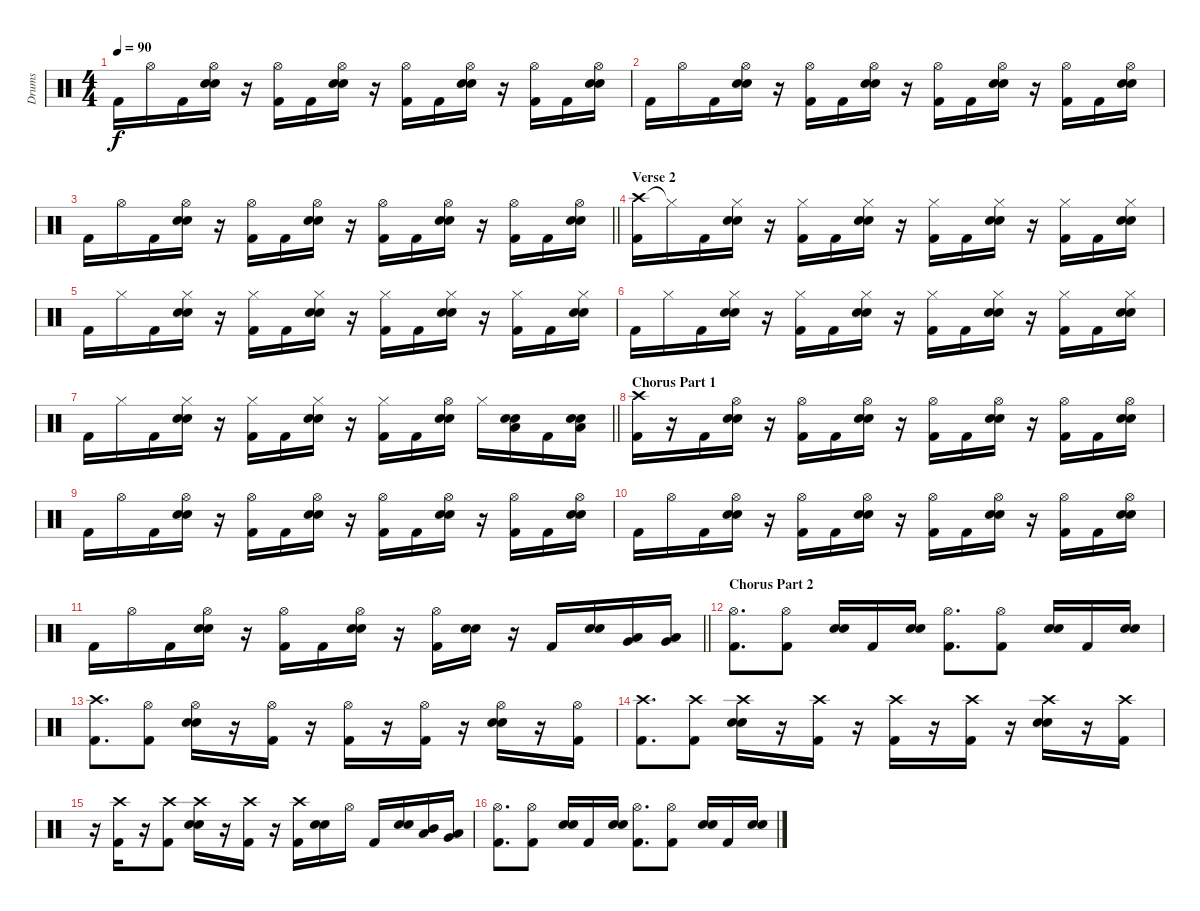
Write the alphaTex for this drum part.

\track ("Drums" "Drums") {instrument percussion}
\staff {score}
\articulation defaults
\ts (4 4)
\tempo 90
\clef neutral
\ks c "Kick (hit) 2".16{dy f} "Hi-Hat (open)".16 "Kick (hit) 2".16
("Hi-Hat (open)" "Snare (hit) 2" "Snare (hit) 2").16 r.16 ("Hi-Hat (open)" "Kick (hit) 2").16 "Kick (hit) 2".16 ("Hi-Hat (open)" "Snare (hit) 2" "Snare (hit) 2").16 r.16 ("Hi-Hat (open)" "Kick (hit) 2").16 "Kick (hit) 2".16 ("Hi-Hat (open)" "Snare (hit) 2" "Snare (hit) 2").16 r.16 ("Hi-Hat (open)" "Kick (hit) 2").16 "Kick (hit) 2".16 ("Hi-Hat (open)" "Snare (hit) 2" "Snare (hit) 2").16 |
"Kick (hit) 2".16 "Hi-Hat (open)".16 "Kick (hit) 2".16 ("Hi-Hat (open)" "Snare (hit) 2" "Snare (hit) 2").16 r.16 ("Hi-Hat (open)" "Kick (hit) 2").16 "Kick (hit) 2".16 ("Hi-Hat (open)" "Snare (hit) 2" "Snare (hit) 2").16 r.16 ("Hi-Hat (open)" "Kick (hit) 2").16 "Kick (hit) 2".16 ("Hi-Hat (open)" "Snare (hit) 2" "Snare (hit) 2").16 r.16 ("Hi-Hat (open)" "Kick (hit) 2").16 "Kick (hit) 2".16 ("Hi-Hat (open)" "Snare (hit) 2" "Snare (hit) 2").16 |
\barLineRight lightlight "Kick (hit) 2".16 "Hi-Hat (open)".16 "Kick (hit) 2".16
("Hi-Hat (open)" "Snare (hit) 2" "Snare (hit) 2").16 r.16 ("Hi-Hat (open)" "Kick (hit) 2").16 "Kick (hit) 2".16 ("Hi-Hat (open)" "Snare (hit) 2" "Snare (hit) 2").16 r.16 ("Hi-Hat (open)" "Kick (hit) 2").16 "Kick (hit) 2".16 ("Hi-Hat (open)" "Snare (hit) 2" "Snare (hit) 2").16 r.16 ("Hi-Hat (open)" "Kick (hit) 2").16 "Kick (hit) 2".16 ("Hi-Hat (open)" "Snare (hit) 2" "Snare (hit) 2").16 |
\section ("" "Verse 2")
("Crash high (hit)" "Kick (hit) 2").16 "Hi-Hat (closed)"{t}.16 "Kick (hit) 2".16 ("Hi-Hat (closed)" "Snare (hit) 2" "Snare (hit) 2").16 r.16 ("Hi-Hat (closed)" "Kick (hit) 2").16 "Kick (hit) 2".16 ("Hi-Hat (closed)" "Snare (hit) 2" "Snare (hit) 2").16 r.16 ("Hi-Hat (closed)" "Kick (hit) 2").16 "Kick (hit) 2".16 ("Hi-Hat (closed)" "Snare (hit) 2" "Snare (hit) 2").16 r.16 ("Hi-Hat (closed)" "Kick (hit) 2").16 "Kick (hit) 2".16 ("Hi-Hat (closed)" "Snare (hit) 2" "Snare (hit) 2").16 |
"Kick (hit) 2".16 "Hi-Hat (closed)".16 "Kick (hit) 2".16 ("Hi-Hat (closed)" "Snare (hit) 2" "Snare (hit) 2").16 r.16 ("Hi-Hat (closed)" "Kick (hit) 2").16 "Kick (hit) 2".16 ("Hi-Hat (closed)" "Snare (hit) 2" "Snare (hit) 2").16 r.16 ("Hi-Hat (closed)" "Kick (hit) 2").16 "Kick (hit) 2".16 ("Hi-Hat (closed)" "Snare (hit) 2" "Snare (hit) 2").16 r.16 ("Hi-Hat (closed)" "Kick (hit) 2").16 "Kick (hit) 2".16 ("Hi-Hat (closed)" "Snare (hit) 2" "Snare (hit) 2").16 |
"Kick (hit) 2".16 "Hi-Hat (closed)".16 "Kick (hit) 2".16 ("Hi-Hat (closed)" "Snare (hit) 2" "Snare (hit) 2").16 r.16 ("Hi-Hat (closed)" "Kick (hit) 2").16 "Kick (hit) 2".16 ("Hi-Hat (closed)" "Snare (hit) 2" "Snare (hit) 2").16 r.16 ("Hi-Hat (closed)" "Kick (hit) 2").16 "Kick (hit) 2".16 ("Hi-Hat (closed)" "Snare (hit) 2" "Snare (hit) 2").16 r.16 ("Hi-Hat (closed)" "Kick (hit) 2").16 "Kick (hit) 2".16 ("Hi-Hat (closed)" "Snare (hit) 2" "Snare (hit) 2").16 |
\barLineRight lightlight "Kick (hit) 2".16 "Hi-Hat (closed)".16 "Kick (hit) 2".16
("Hi-Hat (closed)" "Snare (hit) 2" "Snare (hit) 2").16 r.16 ("Hi-Hat (closed)" "Kick (hit) 2").16 "Kick (hit) 2".16 ("Hi-Hat (closed)" "Snare (hit) 2" "Snare (hit) 2").16 r.16 ("Hi-Hat (closed)" "Kick (hit) 2").16 "Kick (hit) 2".16 ("Hi-Hat (open)" "Snare (hit) 2" "Snare (hit) 2").16 "Hi-Hat (closed)".16 ("Low Floor Tom (hit)" "Snare (hit) 2" "Snare (hit) 2").16 "Kick (hit) 2".16 ("Low Floor Tom (hit)" "Snare (hit) 2" "Snare (hit) 2").16 |
\section ("" "Chorus Part 1")
("Crash high (hit)" "Kick (hit) 2").16 r.16 "Kick (hit) 2".16 ("Hi-Hat (open)" "Snare (hit) 2" "Snare (hit) 2").16 r.16 ("Hi-Hat (open)" "Kick (hit) 2").16 "Kick (hit) 2".16 ("Hi-Hat (open)" "Snare (hit) 2" "Snare (hit) 2").16 r.16 ("Hi-Hat (open)" "Kick (hit) 2").16 "Kick (hit) 2".16 ("Hi-Hat (open)" "Snare (hit) 2" "Snare (hit) 2").16 r.16 ("Hi-Hat (open)" "Kick (hit) 2").16 "Kick (hit) 2".16 ("Hi-Hat (open)" "Snare (hit) 2" "Snare (hit) 2").16 |
"Kick (hit) 2".16 "Hi-Hat (open)".16 "Kick (hit) 2".16 ("Hi-Hat (open)" "Snare (hit) 2" "Snare (hit) 2").16 r.16 ("Hi-Hat (open)" "Kick (hit) 2").16 "Kick (hit) 2".16 ("Hi-Hat (open)" "Snare (hit) 2" "Snare (hit) 2").16 r.16 ("Hi-Hat (open)" "Kick (hit) 2").16 "Kick (hit) 2".16 ("Hi-Hat (open)" "Snare (hit) 2" "Snare (hit) 2").16 r.16 ("Hi-Hat (open)" "Kick (hit) 2").16 "Kick (hit) 2".16 ("Hi-Hat (open)" "Snare (hit) 2" "Snare (hit) 2").16 |
"Kick (hit) 2".16 "Hi-Hat (open)".16 "Kick (hit) 2".16 ("Hi-Hat (open)" "Snare (hit) 2" "Snare (hit) 2").16 r.16 ("Hi-Hat (open)" "Kick (hit) 2").16 "Kick (hit) 2".16 ("Hi-Hat (open)" "Snare (hit) 2" "Snare (hit) 2").16 r.16 ("Hi-Hat (open)" "Kick (hit) 2").16 "Kick (hit) 2".16 ("Hi-Hat (open)" "Snare (hit) 2" "Snare (hit) 2").16 r.16 ("Hi-Hat (open)" "Kick (hit) 2").16 "Kick (hit) 2".16 ("Hi-Hat (open)" "Snare (hit) 2" "Snare (hit) 2").16 |
\barLineRight lightlight "Kick (hit) 2".16 "Hi-Hat (open)".16 "Kick (hit) 2".16
("Hi-Hat (open)" "Snare (hit) 2" "Snare (hit) 2").16 r.16 ("Hi-Hat (open)" "Kick (hit) 2").16 "Kick (hit) 2".16 ("Hi-Hat (open)" "Snare (hit) 2" "Snare (hit) 2").16 r.16 ("Hi-Hat (open)" "Kick (hit) 2").16 ("Snare (hit) 2" "Snare (hit) 2").16 r.16 "Kick (hit) 2".16 ("Snare (hit) 2" "Snare (hit) 2").16 ("Very Low Tom (hit)" "Low Tom (hit)").16 ("Low Floor Tom (hit)" "Very Low Tom (hit)").16 |
\section ("" "Chorus Part 2")
("Hi-Hat (open)" "Kick (hit) 2").8{d} ("Hi-Hat (open)" "Kick (hit) 2").8 ("Snare (hit) 2" "Snare (hit) 2").16 "Kick (hit) 2".16 ("Snare (hit) 2" "Snare (hit) 2").16 ("Hi-Hat (open)" "Kick (hit) 2").8{d} ("Hi-Hat (open)" "Kick (hit) 2").8 ("Snare (hit) 2" "Snare (hit) 2").16 "Kick (hit) 2".16 ("Snare (hit) 2" "Snare (hit) 2").16 |
("Crash high (hit)" "Kick (hit) 2").8{d} ("Hi-Hat (open)" "Kick (hit) 2").8 ("Hi-Hat (open)" "Snare (hit) 2" "Snare (hit) 2").16 r.16 ("Hi-Hat (open)" "Kick (hit) 2").16 r.16 ("Hi-Hat (open)" "Kick (hit) 2").16 r.16 ("Hi-Hat (open)" "Kick (hit) 2").16 r.16 ("Hi-Hat (open)" "Snare (hit) 2" "Snare (hit) 2").16 r.16 ("Hi-Hat (open)" "Kick (hit) 2").16 |
("Crash high (hit)" "Kick (hit) 2").8{d} ("Crash high (hit)" "Kick (hit) 2").8 ("Crash high (hit)" "Snare (hit) 2" "Snare (hit) 2").16 r.16 ("Crash high (hit)" "Kick (hit) 2").16 r.16 ("Crash high (hit)" "Kick (hit) 2").16 r.16 ("Crash high (hit)" "Kick (hit) 2").16 r.16 ("Crash high (hit)" "Snare (hit) 2" "Snare (hit) 2").16 r.16 ("Crash high (hit)" "Kick (hit) 2").16 |
r.16 ("Crash high (hit)" "Kick (hit) 2").16 r.16 ("Crash high (hit)" "Kick (hit) 2").8 ("Crash high (hit)" "Snare (hit) 2" "Snare (hit) 2").16 r.16 ("Crash high (hit)" "Kick (hit) 2").16 r.16 ("Crash high (hit)" "Kick (hit) 2").16 ("Snare (hit) 2" "Snare (hit) 2").16 "Hi-Hat (open)".16 "Kick (hit) 2".16 ("Snare (hit) 2" "Snare (hit) 2").16 ("Low Tom (hit)" "Mid Tom (hit)").16 ("Very Low Tom (hit)" "Low Tom (hit)").16 |
("Hi-Hat (open)" "Kick (hit) 2").8{d} ("Hi-Hat (open)" "Kick (hit) 2").8 ("Snare (hit) 2" "Snare (hit) 2").16 "Kick (hit) 2".16 ("Snare (hit) 2" "Snare (hit) 2").16 ("Hi-Hat (open)" "Kick (hit) 2").8{d} ("Hi-Hat (open)" "Kick (hit) 2").8 ("Snare (hit) 2" "Snare (hit) 2").16 "Kick (hit) 2".16 ("Snare (hit) 2" "Snare (hit) 2").16
